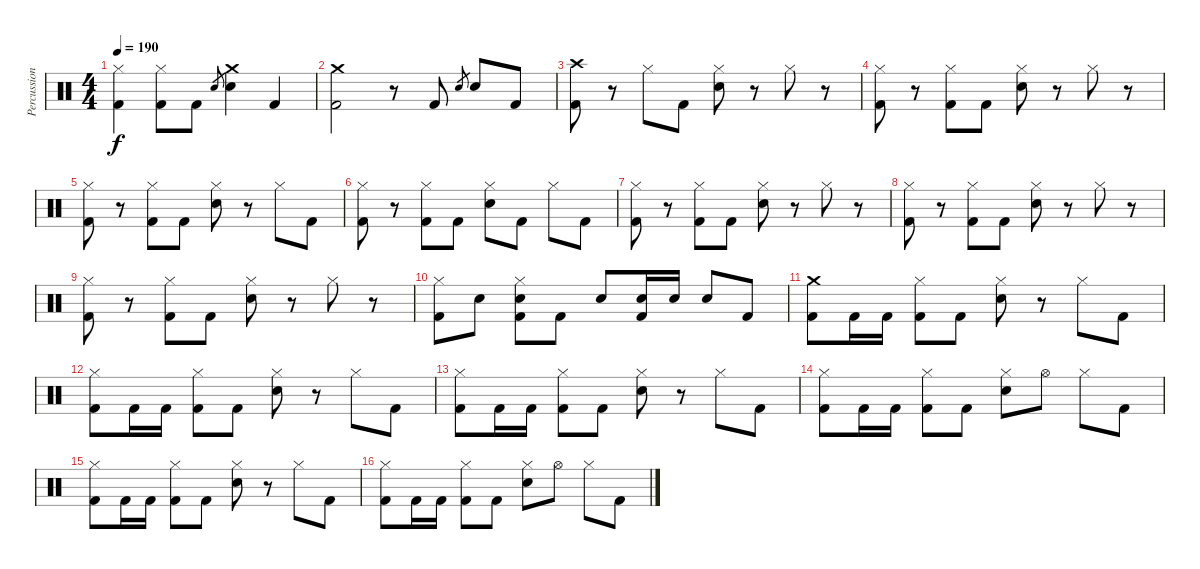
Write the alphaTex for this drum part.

\track ("Percussions" "Percussion") {instrument percussion}
\staff {score}
\articulation defaults
\ts (4 4)
\tempo 190
\clef neutral
\ks c
("Hi-Hat (closed)" "Kick (hit) 2").4{dy f} ("Hi-Hat (closed)" "Kick (hit) 2").8 "Kick (hit) 2".8 "Electric Snare (hit)".8{gr} ("Crash medium (hit)" "Electric Snare (hit)").4 "Kick (hit) 2".4 |
("Crash medium (hit)" "Kick (hit) 2").2 r.8 "Kick (hit) 2".8 "Electric Snare (hit)".8{gr} "Electric Snare (hit)".8 "Kick (hit) 2".8 |
("Crash high (hit)" "Kick (hit) 2").8 r.8 "Hi-Hat (closed)".8 "Kick (hit) 2".8 ("Hi-Hat (closed)" "Electric Snare (hit)").8 r.8 "Hi-Hat (closed)".8 r.8 |
("Hi-Hat (closed)" "Kick (hit) 2").8 r.8 ("Hi-Hat (closed)" "Kick (hit) 2").8 "Kick (hit) 2".8 ("Hi-Hat (closed)" "Electric Snare (hit)").8 r.8 "Hi-Hat (closed)".8 r.8 |
("Hi-Hat (closed)" "Kick (hit) 2").8 r.8 ("Hi-Hat (closed)" "Kick (hit) 2").8 "Kick (hit) 2".8 ("Hi-Hat (closed)" "Electric Snare (hit)").8 r.8 "Hi-Hat (closed)".8 "Kick (hit) 2".8 |
("Hi-Hat (closed)" "Kick (hit) 2").8 r.8 ("Hi-Hat (closed)" "Kick (hit) 2").8 "Kick (hit) 2".8 ("Hi-Hat (closed)" "Electric Snare (hit)").8 "Kick (hit) 2".8 "Hi-Hat (closed)".8 "Kick (hit) 2".8 |
("Hi-Hat (closed)" "Kick (hit) 2").8 r.8 ("Hi-Hat (closed)" "Kick (hit) 2").8 "Kick (hit) 2".8 ("Hi-Hat (closed)" "Electric Snare (hit)").8 r.8 "Hi-Hat (closed)".8 r.8 |
("Hi-Hat (closed)" "Kick (hit) 2").8 r.8 ("Hi-Hat (closed)" "Kick (hit) 2").8 "Kick (hit) 2".8 ("Hi-Hat (closed)" "Electric Snare (hit)").8 r.8 "Hi-Hat (closed)".8 r.8 |
("Hi-Hat (closed)" "Kick (hit) 2").8 r.8 ("Hi-Hat (closed)" "Kick (hit) 2").8 "Kick (hit) 2".8 ("Hi-Hat (closed)" "Electric Snare (hit)").8 r.8 "Hi-Hat (closed)".8 r.8 |
("Hi-Hat (closed)" "Kick (hit) 2").8 "Electric Snare (hit)".8 ("Hi-Hat (closed)" "Electric Snare (hit)" "Kick (hit) 2").8 "Kick (hit) 2".8 "Electric Snare (hit)".8 ("Electric Snare (hit)" "Kick (hit) 2").16 "Electric Snare (hit)".16 "Electric Snare (hit)".8 "Kick (hit) 2".8 |
("Crash medium (hit)" "Kick (hit) 2").8 "Kick (hit) 2".16 "Kick (hit) 2".16 ("Hi-Hat (closed)" "Kick (hit) 2").8 "Kick (hit) 2".8 ("Hi-Hat (closed)" "Electric Snare (hit)").8 r.8 "Hi-Hat (closed)".8 "Kick (hit) 2".8 |
("Hi-Hat (closed)" "Kick (hit) 2").8 "Kick (hit) 2".16 "Kick (hit) 2".16 ("Hi-Hat (closed)" "Kick (hit) 2").8 "Kick (hit) 2".8 ("Hi-Hat (closed)" "Electric Snare (hit)").8 r.8 "Hi-Hat (closed)".8 "Kick (hit) 2".8 |
("Hi-Hat (closed)" "Kick (hit) 2").8 "Kick (hit) 2".16 "Kick (hit) 2".16 ("Hi-Hat (closed)" "Kick (hit) 2").8 "Kick (hit) 2".8 ("Hi-Hat (closed)" "Electric Snare (hit)").8 r.8 "Hi-Hat (closed)".8 "Kick (hit) 2".8 |
("Hi-Hat (closed)" "Kick (hit) 2").8 "Kick (hit) 2".16 "Kick (hit) 2".16 ("Hi-Hat (closed)" "Kick (hit) 2").8 "Kick (hit) 2".8 ("Hi-Hat (closed)" "Electric Snare (hit)").8 "Hi-Hat (open)".8 "Hi-Hat (closed)".8 "Kick (hit) 2".8 |
("Hi-Hat (closed)" "Kick (hit) 2").8 "Kick (hit) 2".16 "Kick (hit) 2".16 ("Hi-Hat (closed)" "Kick (hit) 2").8 "Kick (hit) 2".8 ("Hi-Hat (closed)" "Electric Snare (hit)").8 r.8 "Hi-Hat (closed)".8 "Kick (hit) 2".8 |
("Hi-Hat (closed)" "Kick (hit) 2").8 "Kick (hit) 2".16 "Kick (hit) 2".16 ("Hi-Hat (closed)" "Kick (hit) 2").8 "Kick (hit) 2".8 ("Hi-Hat (closed)" "Electric Snare (hit)").8 "Hi-Hat (open)".8 "Hi-Hat (closed)".8 "Kick (hit) 2".8
